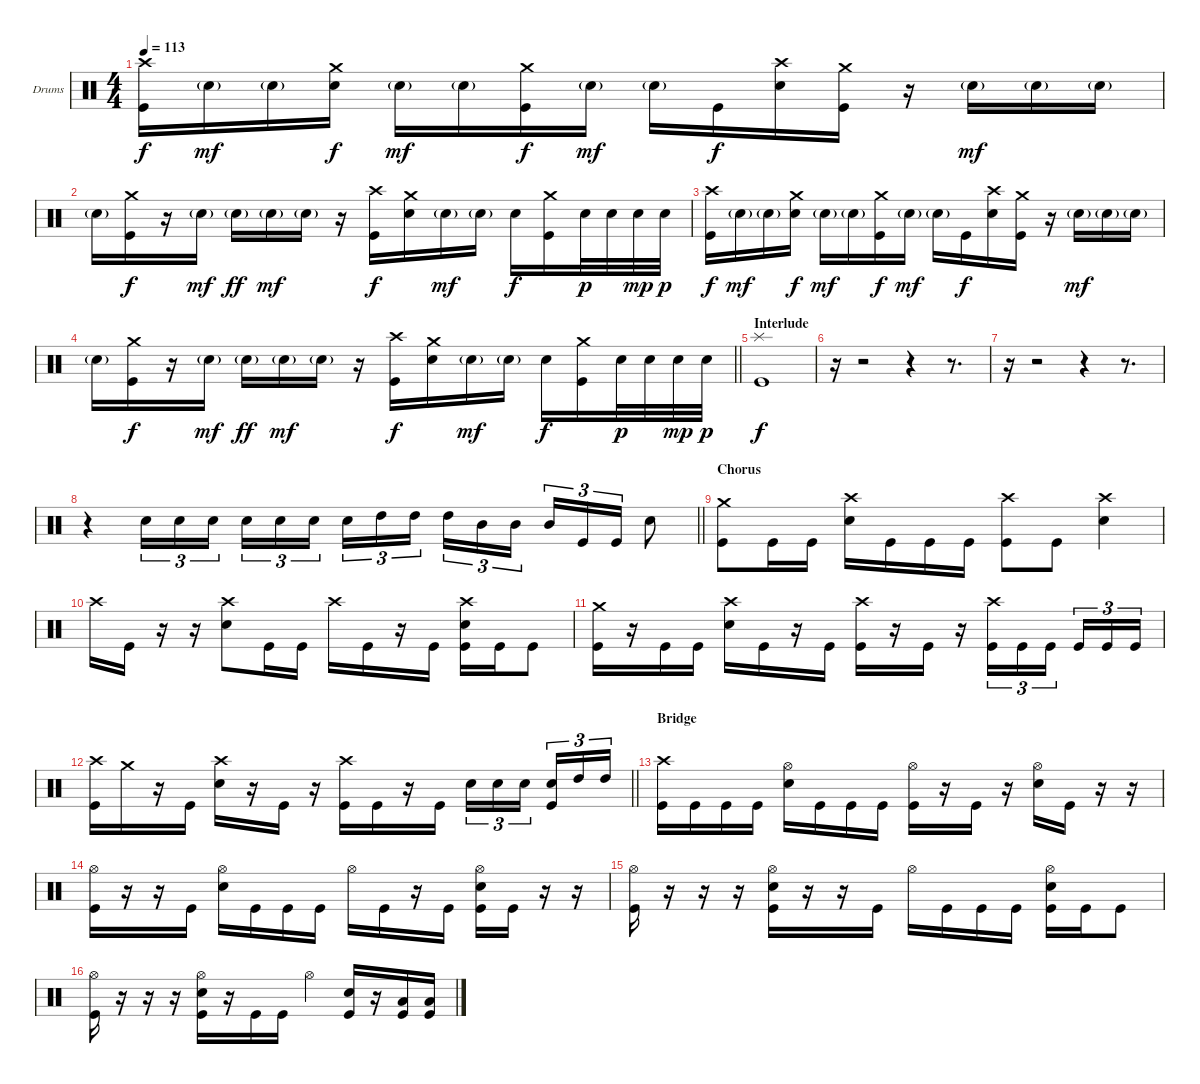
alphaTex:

\bracketExtendMode groupsimilarinstruments
\firstSystemTrackNameOrientation horizontal
\otherSystemsTrackNameOrientation horizontal
\track ("Drumkit" "Drums") {instrument percussion}
\staff {score}
\articulation defaults
\ts (4 4)
\tempo 113
\clef neutral
\ks c
("Crash high (hit)" "Kick (hit)").16{dy f} "Snare (hit) 2"{g}.16{dy mf} "Snare (hit) 2"{g}.16 ("Crash medium (hit)" "Snare (hit) 2").16{dy f} "Snare (hit) 2"{g}.16{dy mf} "Snare (hit) 2"{g}.16 ("Crash medium (hit)" "Kick (hit)").16{dy f} "Snare (hit) 2"{g}.16{dy mf} "Snare (hit) 2"{g}.16 "Kick (hit)".16{dy f} ("Crash high (hit)" "Snare (hit) 2").16 ("Crash medium (hit)" "Kick (hit)").16 r.16 "Snare (hit) 2"{g}.16{dy mf} "Snare (hit) 2"{g}.16 "Snare (hit) 2"{g}.16 |
"Snare (hit) 2"{g}.16 ("Crash medium (hit)" "Kick (hit)").16{dy f} r.16 "Snare (hit) 2"{g}.16{dy mf} "Snare (hit) 2"{g}.16{dy ff} "Snare (hit) 2"{g}.16{dy mf} "Snare (hit) 2"{g}.16 r.16 ("Crash high (hit)" "Kick (hit)").16{dy f} ("Crash medium (hit)" "Snare (hit) 2").16 "Snare (hit) 2"{g}.16{dy mf} "Snare (hit) 2"{g}.16 "Snare (hit) 2".16{dy f} ("Crash medium (hit)" "Kick (hit)").16 "Snare (hit) 2".32{dy p} "Snare (hit) 2".32 "Snare (hit) 2".32{dy mp} "Snare (hit) 2".32{dy p} |
("Crash high (hit)" "Kick (hit)").16{dy f} "Snare (hit) 2"{g}.16{dy mf} "Snare (hit) 2"{g}.16 ("Crash medium (hit)" "Snare (hit) 2").16{dy f} "Snare (hit) 2"{g}.16{dy mf} "Snare (hit) 2"{g}.16 ("Crash medium (hit)" "Kick (hit)").16{dy f} "Snare (hit) 2"{g}.16{dy mf} "Snare (hit) 2"{g}.16 "Kick (hit)".16{dy f} ("Crash high (hit)" "Snare (hit) 2").16 ("Crash medium (hit)" "Kick (hit)").16 r.16 "Snare (hit) 2"{g}.16{dy mf} "Snare (hit) 2"{g}.16 "Snare (hit) 2"{g}.16 |
\barLineRight lightlight "Snare (hit) 2"{g}.16
("Crash medium (hit)" "Kick (hit)").16{dy f} r.16 "Snare (hit) 2"{g}.16{dy mf} "Snare (hit) 2"{g}.16{dy ff} "Snare (hit) 2"{g}.16{dy mf} "Snare (hit) 2"{g}.16 r.16 ("Crash high (hit)" "Kick (hit)").16{dy f} ("Crash medium (hit)" "Snare (hit) 2").16 "Snare (hit) 2"{g}.16{dy mf} "Snare (hit) 2"{g}.16 "Snare (hit) 2".16{dy f} ("Crash medium (hit)" "Kick (hit)").16 "Snare (hit) 2".32{dy p} "Snare (hit) 2".32 "Snare (hit) 2".32{dy mp} "Snare (hit) 2".32{dy p} |
\section ("" "Interlude")
("Splash (hit)" "Kick (hit)").1{dy f} |
r.16 r.2 r.4 r.8{d} |
r.16 r.2 r.4 r.8{d} |
\barLineRight lightlight
r.4 "Snare (hit) 2".16{tu (3 2)} "Snare (hit) 2".16{tu (3 2)} "Snare (hit) 2".16{tu (3 2)} "Snare (hit) 2".16{tu (3 2)} "Snare (hit) 2".16{tu (3 2)} "Snare (hit) 2".16{tu (3 2)} "Snare (hit) 2".16{tu (3 2)} "High Tom (hit)".16{tu (3 2)} "High Tom (hit)".16{tu (3 2)} "High Tom (hit)".16{tu (3 2)} "Mid Tom (hit)".16{tu (3 2)} "Mid Tom (hit)".16{tu (3 2)} "Mid Tom (hit)".16{tu (3 2)} "Kick (hit)".16{tu (3 2)} "Kick (hit)".16{tu (3 2)} "Snare (hit) 2".8 |
\section ("" "Chorus")
("Crash medium (hit)" "Kick (hit)").8 "Kick (hit)".16 "Kick (hit)".16 ("Crash high (hit)" "Snare (hit) 2").16 "Kick (hit)".16 "Kick (hit)".16 "Kick (hit)".16 ("Crash high (hit)" "Kick (hit)").8 "Kick (hit)".8 ("Crash high (hit)" "Snare (hit) 2").4 |
"Crash high (hit)".16 "Kick (hit)".16 r.16 r.16 ("Crash high (hit)" "Snare (hit) 2").8 "Kick (hit)".16 "Kick (hit)".16 "Crash high (hit)".16 "Kick (hit)".16 r.16 "Kick (hit)".16 ("Crash high (hit)" "Snare (hit) 2" "Kick (hit)").16 "Kick (hit)".16 "Kick (hit)".8 |
("Crash medium (hit)" "Kick (hit)").16 r.16 "Kick (hit)".16 "Kick (hit)".16 ("Crash high (hit)" "Snare (hit) 2").16 "Kick (hit)".16 r.16 "Kick (hit)".16 ("Crash high (hit)" "Kick (hit)").16 r.16 "Kick (hit)".16 r.16 ("Crash high (hit)" "Kick (hit)").16{tu (3 2)} "Kick (hit)".16{tu (3 2)} "Kick (hit)".16{tu (3 2)} "Kick (hit)".16{tu (3 2)} "Kick (hit)".16{tu (3 2)} "Kick (hit)".16{tu (3 2)} |
\barLineRight lightlight
("Crash high (hit)" "Kick (hit)").16 "Crash medium (hit)".16 r.16 "Kick (hit)".16 ("Crash high (hit)" "Snare (hit) 2").16 r.16 "Kick (hit)".16 r.16 ("Crash high (hit)" "Kick (hit)").16 "Kick (hit)".16 r.16 "Kick (hit)".16 "Snare (hit) 2".16{tu (3 2)} "Snare (hit) 2".16{tu (3 2)} "Snare (hit) 2".16{tu (3 2)} ("Snare (hit) 2" "Kick (hit)").16{tu (3 2)} "High Tom (hit)".16{tu (3 2)} "High Tom (hit)".16{tu (3 2)} |
\section ("" "Bridge")
("Crash high (hit)" "Kick (hit)").16 "Kick (hit)".16 "Kick (hit)".16 "Kick (hit)".16 ("Hi-Hat (open)" "Snare (hit) 2").16 "Kick (hit)".16 "Kick (hit)".16 "Kick (hit)".16 ("Hi-Hat (open)" "Kick (hit)").16 r.16 "Kick (hit)".16 r.16 ("Hi-Hat (open)" "Snare (hit) 2").16 "Kick (hit)".16 r.16 r.16 |
("Hi-Hat (open)" "Kick (hit)").16 r.16 r.16 "Kick (hit)".16 ("Hi-Hat (open)" "Snare (hit) 2").16 "Kick (hit)".16 "Kick (hit)".16 "Kick (hit)".16 "Hi-Hat (open)".16 "Kick (hit)".16 r.16 "Kick (hit)".16 ("Hi-Hat (open)" "Snare (hit) 2" "Kick (hit)").16 "Kick (hit)".16 r.16 r.16 |
("Hi-Hat (open)" "Kick (hit)").16 r.16 r.16 r.16 ("Hi-Hat (open)" "Snare (hit) 2" "Kick (hit)").16 r.16 r.16 "Kick (hit)".16 "Hi-Hat (open)".16 "Kick (hit)".16 "Kick (hit)".16 "Kick (hit)".16 ("Hi-Hat (open)" "Snare (hit) 2" "Kick (hit)").16 "Kick (hit)".16 "Kick (hit)".8 |
("Hi-Hat (open)" "Kick (hit)").16 r.16 r.16 r.16 ("Hi-Hat (open)" "Snare (hit) 2" "Kick (hit)").16 r.16 "Kick (hit)".16 "Kick (hit)".16 "Hi-Hat (open)".4 ("Snare (hit) 2" "Kick (hit)").16 r.16 ("Low Tom (hit)" "Kick (hit)").16 ("Low Tom (hit)" "Kick (hit)").16
